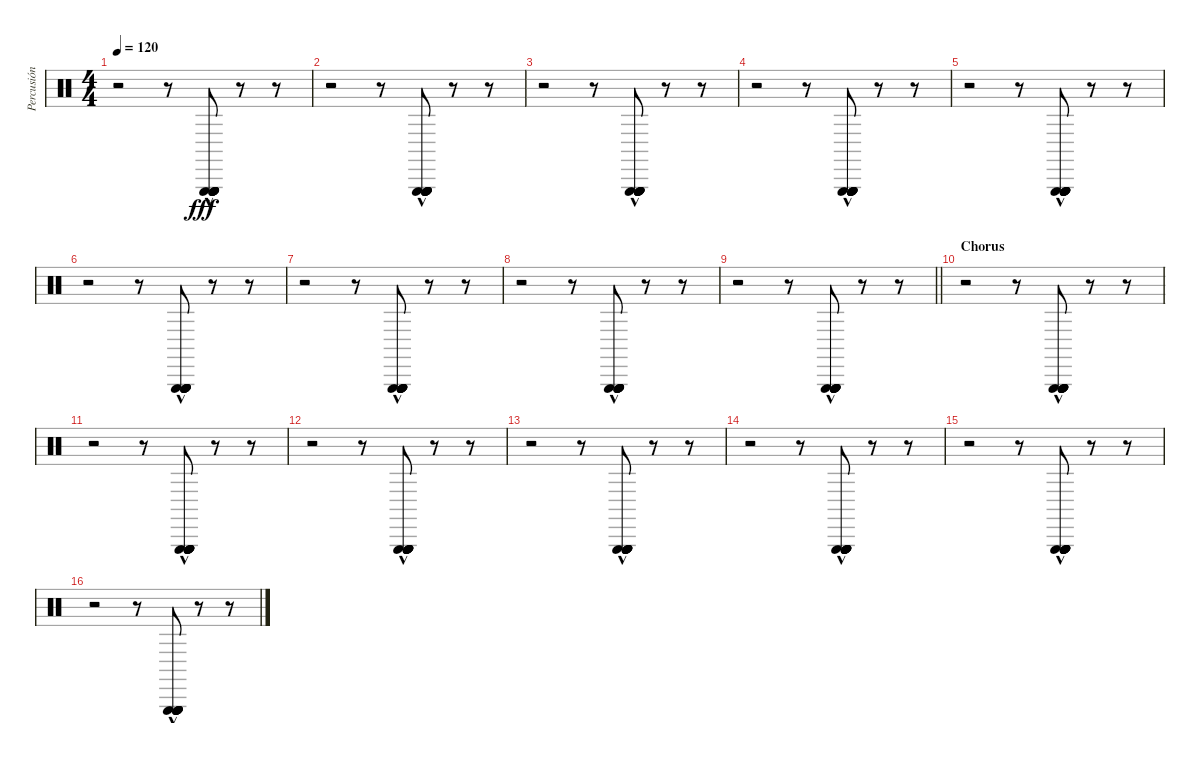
\track ("Percusión" "Percusión") {instrument percussion}
\staff {score}
\articulation defaults
\ts (4 4)
\tempo 120
\clef neutral
\ks c
r.2{dy fff} r.8 ("Triangle (hit)" "Triangle (hit)" "Triangle (hit)" "Triangle (hit)" "Triangle (hit)" "Triangle (hit)"{hac}).8 r.8 r.8 |
r.2 r.8 ("Triangle (hit)" "Triangle (hit)" "Triangle (hit)" "Triangle (hit)" "Triangle (hit)" "Triangle (hit)"{hac}).8 r.8 r.8 |
r.2 r.8 ("Triangle (hit)" "Triangle (hit)" "Triangle (hit)" "Triangle (hit)" "Triangle (hit)" "Triangle (hit)"{hac}).8 r.8 r.8 |
r.2 r.8 ("Triangle (hit)" "Triangle (hit)" "Triangle (hit)" "Triangle (hit)" "Triangle (hit)" "Triangle (hit)"{hac}).8 r.8 r.8 |
r.2 r.8 ("Triangle (hit)" "Triangle (hit)" "Triangle (hit)" "Triangle (hit)" "Triangle (hit)" "Triangle (hit)"{hac}).8 r.8 r.8 |
r.2 r.8 ("Triangle (hit)" "Triangle (hit)" "Triangle (hit)" "Triangle (hit)" "Triangle (hit)" "Triangle (hit)"{hac}).8 r.8 r.8 |
r.2 r.8 ("Triangle (hit)" "Triangle (hit)" "Triangle (hit)" "Triangle (hit)" "Triangle (hit)" "Triangle (hit)"{hac}).8 r.8 r.8 |
r.2 r.8 ("Triangle (hit)" "Triangle (hit)" "Triangle (hit)" "Triangle (hit)" "Triangle (hit)" "Triangle (hit)"{hac}).8 r.8 r.8 |
\barLineRight lightlight
r.2 r.8 ("Triangle (hit)" "Triangle (hit)" "Triangle (hit)" "Triangle (hit)" "Triangle (hit)" "Triangle (hit)"{hac}).8 r.8 r.8 |
\section ("" "Chorus")
r.2 r.8 ("Triangle (hit)" "Triangle (hit)" "Triangle (hit)" "Triangle (hit)" "Triangle (hit)" "Triangle (hit)"{hac}).8 r.8 r.8 |
r.2 r.8 ("Triangle (hit)" "Triangle (hit)" "Triangle (hit)" "Triangle (hit)" "Triangle (hit)" "Triangle (hit)"{hac}).8 r.8 r.8 |
r.2 r.8 ("Triangle (hit)" "Triangle (hit)" "Triangle (hit)" "Triangle (hit)" "Triangle (hit)" "Triangle (hit)"{hac}).8 r.8 r.8 |
r.2 r.8 ("Triangle (hit)" "Triangle (hit)" "Triangle (hit)" "Triangle (hit)" "Triangle (hit)" "Triangle (hit)"{hac}).8 r.8 r.8 |
r.2 r.8 ("Triangle (hit)" "Triangle (hit)" "Triangle (hit)" "Triangle (hit)" "Triangle (hit)" "Triangle (hit)"{hac}).8 r.8 r.8 |
r.2 r.8 ("Triangle (hit)" "Triangle (hit)" "Triangle (hit)" "Triangle (hit)" "Triangle (hit)" "Triangle (hit)"{hac}).8 r.8 r.8 |
r.2 r.8 ("Triangle (hit)" "Triangle (hit)" "Triangle (hit)" "Triangle (hit)" "Triangle (hit)" "Triangle (hit)"{hac}).8 r.8 r.8
